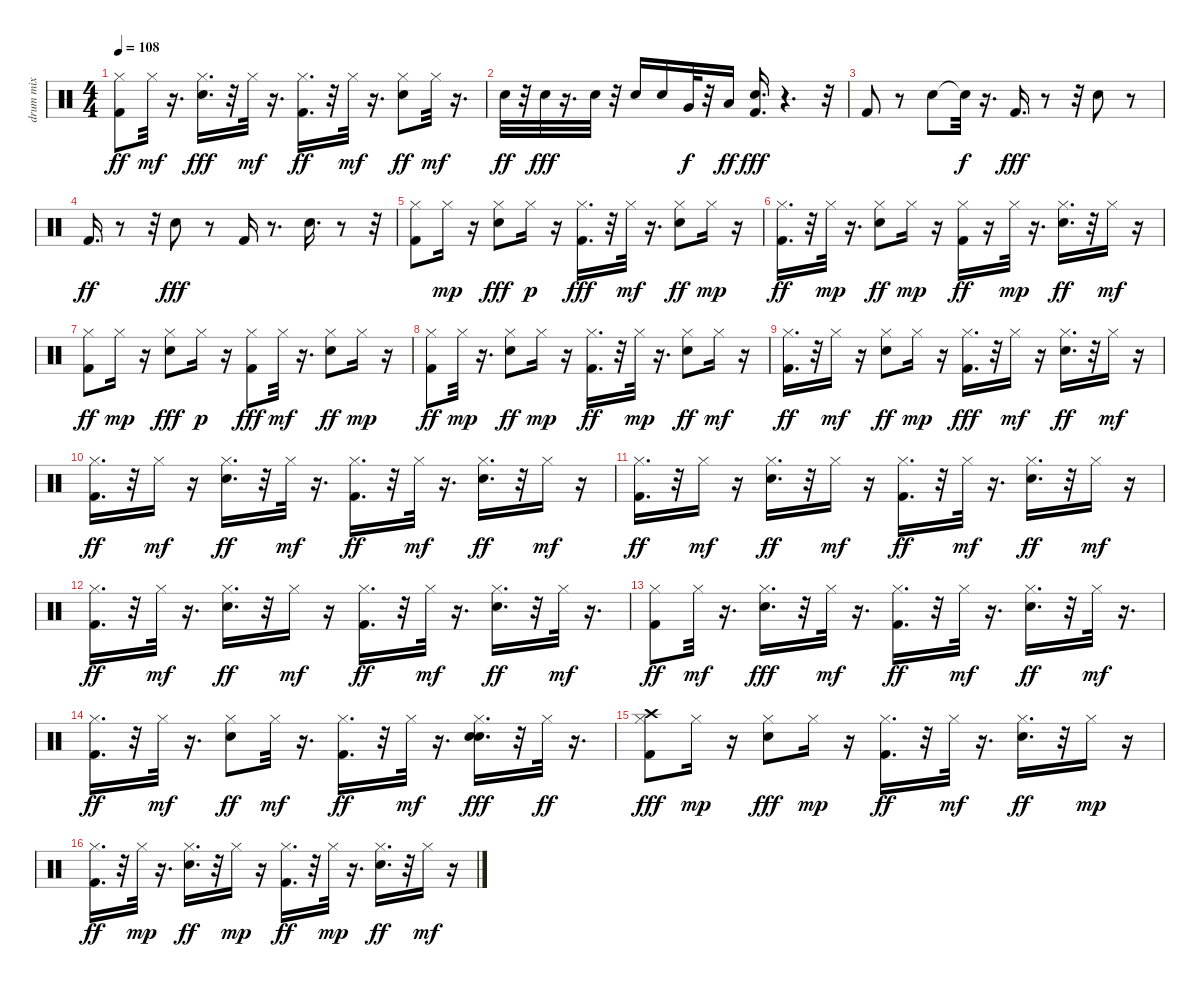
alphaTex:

\track ("drum mix" "drum mix") {instrument percussion}
\staff {score}
\articulation defaults
\ts (4 4)
\tempo 108
\clef neutral
\ks c
("Kick (hit) 2" "Hi-Hat (closed)").8{dy ff} "Hi-Hat (closed)".32{dy mf} r.16{d} ("Electric Snare (hit)" "Hi-Hat (closed)").16{d dy fff} r.32 "Hi-Hat (closed)".32{dy mf} r.16{d} ("Kick (hit) 2" "Hi-Hat (closed)").16{d dy ff} r.32 "Hi-Hat (closed)".32{dy mf} r.16{d} ("Electric Snare (hit)" "Hi-Hat (closed)").8{dy ff} "Hi-Hat (closed)".32{dy mf} r.16{d} |
"Electric Snare (hit)".32{dy ff} r.32 "Electric Snare (hit)".32{dy fff} r.16{d} "Electric Snare (hit)".32 r.32 "Electric Snare (hit)".16 "Electric Snare (hit)".16 "Very Low Tom (hit)".32{dy f} r.32 "Low Floor Tom (hit)".16{dy ff} ("Kick (hit) 2" "Electric Snare (hit)").16{d dy fff} r.4{d} r.32 |
"Kick (hit) 2".8 r.8 "Electric Snare (hit)".8 "Snare (hit)"{t}.32{dy f} r.16{d} "Kick (hit) 2".16{d dy fff} r.8 r.32 "Electric Snare (hit)".8 r.8 |
"Kick (hit) 2".16{d dy ff} r.8 r.32 "Electric Snare (hit)".8{dy fff} r.8 "Kick (hit) 2".16 r.8{d} "Electric Snare (hit)".16{d} r.8 r.32 |
("Kick (hit) 2" "Hi-Hat (closed)").8 "Hi-Hat (closed)".16{dy mp} r.16 ("Electric Snare (hit)" "Hi-Hat (closed)").8{dy fff} "Hi-Hat (closed)".16{dy p} r.16 ("Kick (hit) 2" "Hi-Hat (closed)").16{d dy fff} r.32 "Hi-Hat (closed)".32{dy mf} r.16{d} ("Electric Snare (hit)" "Hi-Hat (closed)").8{dy ff} "Hi-Hat (closed)".16{dy mp} r.16 |
("Kick (hit) 2" "Hi-Hat (closed)").16{d dy ff} r.32 "Hi-Hat (closed)".32{dy mp} r.16{d} ("Electric Snare (hit)" "Hi-Hat (closed)").8{dy ff} "Hi-Hat (closed)".16{dy mp} r.16 ("Kick (hit) 2" "Hi-Hat (closed)").16{dy ff} r.16 "Hi-Hat (closed)".32{dy mp} r.16{d} ("Electric Snare (hit)" "Hi-Hat (closed)").16{d dy ff} r.32 "Hi-Hat (closed)".16{dy mf} r.16 |
("Kick (hit) 2" "Hi-Hat (closed)").8{dy ff} "Hi-Hat (closed)".16{dy mp} r.16 ("Electric Snare (hit)" "Hi-Hat (closed)").8{dy fff} "Hi-Hat (closed)".16{dy p} r.16 ("Kick (hit) 2" "Hi-Hat (closed)").8{dy fff} "Hi-Hat (closed)".32{dy mf} r.16{d} ("Electric Snare (hit)" "Hi-Hat (closed)").8{dy ff} "Hi-Hat (closed)".16{dy mp} r.16 |
("Kick (hit) 2" "Hi-Hat (closed)").8{dy ff} "Hi-Hat (closed)".32{dy mp} r.16{d} ("Electric Snare (hit)" "Hi-Hat (closed)").8{dy ff} "Hi-Hat (closed)".16{dy mp} r.16 ("Kick (hit) 2" "Hi-Hat (closed)").16{d dy ff} r.32 "Hi-Hat (closed)".32{dy mp} r.16{d} ("Electric Snare (hit)" "Hi-Hat (closed)").8{dy ff} "Hi-Hat (closed)".16{dy mf} r.16 |
("Kick (hit) 2" "Hi-Hat (closed)").16{d dy ff} r.32 "Hi-Hat (closed)".16{dy mf} r.16 ("Electric Snare (hit)" "Hi-Hat (closed)").8{dy ff} "Hi-Hat (closed)".16{dy mp} r.16 ("Kick (hit) 2" "Hi-Hat (closed)").16{d dy fff} r.32 "Hi-Hat (closed)".16{dy mf} r.16 ("Electric Snare (hit)" "Hi-Hat (closed)").16{d dy ff} r.32 "Hi-Hat (closed)".16{dy mf} r.16 |
("Kick (hit) 2" "Hi-Hat (closed)").16{d dy ff} r.32 "Hi-Hat (closed)".16{dy mf} r.16 ("Electric Snare (hit)" "Hi-Hat (closed)").16{d dy ff} r.32 "Hi-Hat (closed)".32{dy mf} r.16{d} ("Kick (hit) 2" "Hi-Hat (closed)").16{d dy ff} r.32 "Hi-Hat (closed)".32{dy mf} r.16{d} ("Electric Snare (hit)" "Hi-Hat (closed)").16{d dy ff} r.32 "Hi-Hat (closed)".16{dy mf} r.16 |
("Kick (hit) 2" "Hi-Hat (closed)").16{d dy ff} r.32 "Hi-Hat (closed)".16{dy mf} r.16 ("Electric Snare (hit)" "Hi-Hat (closed)").16{d dy ff} r.32 "Hi-Hat (closed)".16{dy mf} r.16 ("Kick (hit) 2" "Hi-Hat (closed)").16{d dy ff} r.32 "Hi-Hat (closed)".32{dy mf} r.16{d} ("Electric Snare (hit)" "Hi-Hat (closed)").16{d dy ff} r.32 "Hi-Hat (closed)".16{dy mf} r.16 |
("Kick (hit) 2" "Hi-Hat (closed)").16{d dy ff} r.32 "Hi-Hat (closed)".32{dy mf} r.16{d} ("Electric Snare (hit)" "Hi-Hat (closed)").16{d dy ff} r.32 "Hi-Hat (closed)".16{dy mf} r.16 ("Kick (hit) 2" "Hi-Hat (closed)").16{d dy ff} r.32 "Hi-Hat (closed)".32{dy mf} r.16{d} ("Electric Snare (hit)" "Hi-Hat (closed)").16{d dy ff} r.32 "Hi-Hat (closed)".32{dy mf} r.16{d} |
("Kick (hit) 2" "Hi-Hat (closed)").8{dy ff} "Hi-Hat (closed)".32{dy mf} r.16{d} ("Electric Snare (hit)" "Hi-Hat (closed)").16{d dy fff} r.32 "Hi-Hat (closed)".32{dy mf} r.16{d} ("Kick (hit) 2" "Hi-Hat (closed)").16{d dy ff} r.32 "Hi-Hat (closed)".32{dy mf} r.16{d} ("Electric Snare (hit)" "Hi-Hat (closed)").16{d dy ff} r.32 "Hi-Hat (closed)".32{dy mf} r.16{d} |
("Kick (hit) 2" "Hi-Hat (closed)").16{d dy ff} r.32 "Hi-Hat (closed)".32{dy mf} r.16{d} ("Electric Snare (hit)" "Hi-Hat (closed)").8{dy ff} "Hi-Hat (closed)".32{dy mf} r.16{d} ("Kick (hit) 2" "Hi-Hat (closed)").16{d dy ff} r.32 "Hi-Hat (closed)".32{dy mf} r.16{d} ("Electric Snare (hit)" "Hi-Hat (closed)" "Electric Snare (hit)").16{d dy fff} r.32 "Hi-Hat (closed)".32{dy ff} r.16{d} |
("Kick (hit) 2" "Hi-Hat (closed)" "Crash high (hit)").8{dy fff} "Hi-Hat (closed)".16{dy mp} r.16 ("Electric Snare (hit)" "Hi-Hat (closed)").8{dy fff} "Hi-Hat (closed)".16{dy mp} r.16 ("Kick (hit) 2" "Hi-Hat (closed)").16{d dy ff} r.32 "Hi-Hat (closed)".32{dy mf} r.16{d} ("Electric Snare (hit)" "Hi-Hat (closed)").16{d dy ff} r.32 "Hi-Hat (closed)".16{dy mp} r.16 |
("Kick (hit) 2" "Hi-Hat (closed)").16{d dy ff} r.32 "Hi-Hat (closed)".32{dy mp} r.16{d} ("Electric Snare (hit)" "Hi-Hat (closed)").16{d dy ff} r.32 "Hi-Hat (closed)".16{dy mp} r.16 ("Kick (hit) 2" "Hi-Hat (closed)").16{d dy ff} r.32 "Hi-Hat (closed)".32{dy mp} r.16{d} ("Electric Snare (hit)" "Hi-Hat (closed)").16{d dy ff} r.32 "Hi-Hat (closed)".16{dy mf} r.16
